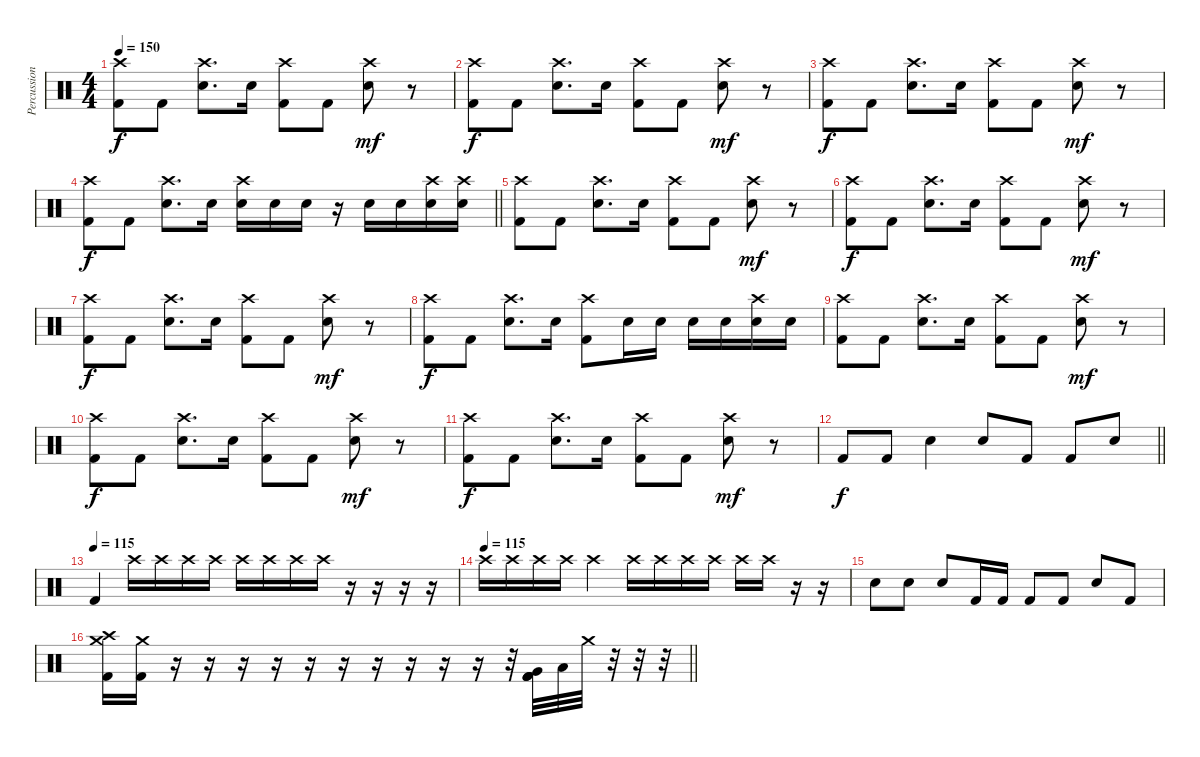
\track ("Percussion" "Percussion") {instrument percussion}
\staff {score}
\articulation defaults
\ts (4 4)
\tempo 150
\clef neutral
\ks c
("Kick (hit) 2" "Crash high (hit)").8{dy f} "Kick (hit) 2".8 ("Electric Snare (hit)" "Crash high (hit)").8{d} "Electric Snare (hit)".16 ("Kick (hit) 2" "Crash high (hit)").8 "Kick (hit) 2".8 ("Electric Snare (hit)" "Crash high (hit)").8{dy mf} r.8 |
("Kick (hit) 2" "Crash high (hit)").8{dy f} "Kick (hit) 2".8 ("Electric Snare (hit)" "Crash high (hit)").8{d} "Electric Snare (hit)".16 ("Kick (hit) 2" "Crash high (hit)").8 "Kick (hit) 2".8 ("Electric Snare (hit)" "Crash high (hit)").8{dy mf} r.8 |
("Kick (hit) 2" "Crash high (hit)").8{dy f} "Kick (hit) 2".8 ("Electric Snare (hit)" "Crash high (hit)").8{d} "Electric Snare (hit)".16 ("Kick (hit) 2" "Crash high (hit)").8 "Kick (hit) 2".8 ("Electric Snare (hit)" "Crash high (hit)").8{dy mf} r.8 |
\barLineRight lightlight
("Kick (hit) 2" "Crash high (hit)").8{dy f} "Kick (hit) 2".8 ("Electric Snare (hit)" "Crash high (hit)").8{d} "Electric Snare (hit)".16 ("Electric Snare (hit)" "Crash high (hit)").16 "Electric Snare (hit)".16 "Electric Snare (hit)".16 r.16 "Electric Snare (hit)".16 "Electric Snare (hit)".16 ("Electric Snare (hit)" "Crash high (hit)").16 ("Electric Snare (hit)" "Crash high (hit)").16 |
("Kick (hit) 2" "Crash high (hit)").8 "Kick (hit) 2".8 ("Electric Snare (hit)" "Crash high (hit)").8{d} "Electric Snare (hit)".16 ("Kick (hit) 2" "Crash high (hit)").8 "Kick (hit) 2".8 ("Electric Snare (hit)" "Crash high (hit)").8{dy mf} r.8 |
("Kick (hit) 2" "Crash high (hit)").8{dy f} "Kick (hit) 2".8 ("Electric Snare (hit)" "Crash high (hit)").8{d} "Electric Snare (hit)".16 ("Kick (hit) 2" "Crash high (hit)").8 "Kick (hit) 2".8 ("Electric Snare (hit)" "Crash high (hit)").8{dy mf} r.8 |
("Kick (hit) 2" "Crash high (hit)").8{dy f} "Kick (hit) 2".8 ("Electric Snare (hit)" "Crash high (hit)").8{d} "Electric Snare (hit)".16 ("Kick (hit) 2" "Crash high (hit)").8 "Kick (hit) 2".8 ("Electric Snare (hit)" "Crash high (hit)").8{dy mf} r.8 |
("Kick (hit) 2" "Crash high (hit)").8{dy f} "Kick (hit) 2".8 ("Electric Snare (hit)" "Crash high (hit)").8{d} "Electric Snare (hit)".16 ("Kick (hit) 2" "Crash high (hit)").8 "Electric Snare (hit)".16 "Electric Snare (hit)".16 "Electric Snare (hit)".16 "Electric Snare (hit)".16 ("Electric Snare (hit)" "Crash high (hit)").16 "Electric Snare (hit)".16 |
("Kick (hit) 2" "Crash high (hit)").8 "Kick (hit) 2".8 ("Electric Snare (hit)" "Crash high (hit)").8{d} "Electric Snare (hit)".16 ("Kick (hit) 2" "Crash high (hit)").8 "Kick (hit) 2".8 ("Electric Snare (hit)" "Crash high (hit)").8{dy mf} r.8 |
("Kick (hit) 2" "Crash high (hit)").8{dy f} "Kick (hit) 2".8 ("Electric Snare (hit)" "Crash high (hit)").8{d} "Electric Snare (hit)".16 ("Kick (hit) 2" "Crash high (hit)").8 "Kick (hit) 2".8 ("Electric Snare (hit)" "Crash high (hit)").8{dy mf} r.8 |
("Kick (hit) 2" "Crash high (hit)").8{dy f} "Kick (hit) 2".8 ("Electric Snare (hit)" "Crash high (hit)").8{d} "Electric Snare (hit)".16 ("Kick (hit) 2" "Crash high (hit)").8 "Kick (hit) 2".8 ("Electric Snare (hit)" "Crash high (hit)").8{dy mf} r.8 |
\barLineRight lightlight "Kick (hit) 2".8{dy f} "Kick (hit) 2".8 "Electric Snare (hit)".4 "Electric Snare (hit)".8 "Kick (hit) 2".8 "Kick (hit) 2".8 "Electric Snare (hit)".8
|
\tempo (115)
"Kick (hit) 2".4 "Crash high (hit)".16 "Crash high (hit)".16 "Crash high (hit)".16 "Crash high (hit)".16 "Crash high (hit)".16 "Crash high (hit)".16 "Crash high (hit)".16 "Crash high (hit)".16 r.16 r.16 r.16 r.16 |
\tempo (115)
"Crash high (hit)".16 "Crash high (hit)".16 "Crash high (hit)".16 "Crash high (hit)".16 "Crash high (hit)".4 "Crash high (hit)".16 "Crash high (hit)".16 "Crash high (hit)".16 "Crash high (hit)".16 "Crash high (hit)".16 "Crash high (hit)".16 r.16 r.16 |
"Snare (hit)".8 "Snare (hit)".8 "Snare (hit)".8 "Kick (hit) 2".16 "Kick (hit) 2".16 "Kick (hit) 2".8 "Kick (hit) 2".8 "Snare (hit)".8 "Kick (hit) 2".8 |
\barLineRight lightlight
("Crash medium (hit)" "Crash high (hit)" "Kick (hit) 2").16 ("Crash medium (hit)" "Kick (hit) 2").16 r.16 r.16 r.16 r.16 r.16 r.16 r.16 r.16 r.16 r.16 r.32 ("Very Low Tom (hit)" "Kick (hit) 2" "Kick (hit) 2" "Kick (hit) 2").32 "Low Tom (hit)".32 "Crash medium (hit)".32 r.32 r.32 r.32
